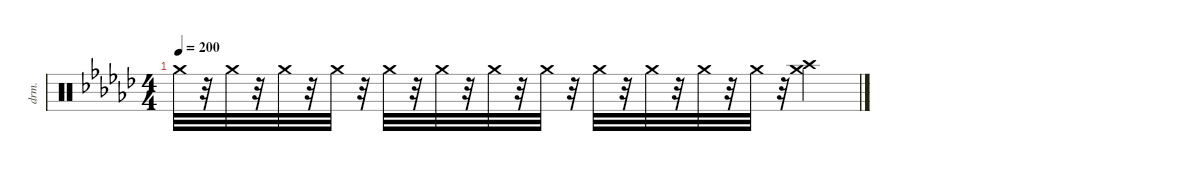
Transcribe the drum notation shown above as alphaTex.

\defaultSystemsLayout 4
\hideDynamics
\bracketExtendMode nobrackets
\otherSystemsTrackNameOrientation horizontal
\track ("Drums" "drm.") {instrument percussion}
\staff {score}
\articulation defaults
\ts (4 4)
\tempo 200
\clef neutral
\ks ebminor "Crash medium (hit)"{acc forcenatural}.32{dy p beam Down}
r.32{beam Down} "Crash medium (hit)"{acc forcenatural}.32{dy mp beam Down} r.32{beam Down} "Crash medium (hit)"{acc forcenatural}.32{beam Down} r.32{beam Down} "Crash medium (hit)"{acc forcenatural}.32{beam Down} r.32{beam Down} "Crash medium (hit)"{acc forcenatural}.32{beam Down} r.32{beam Down} "Crash medium (hit)"{acc forcenatural}.32{dy mf beam Down} r.32{beam Down} "Crash medium (hit)"{acc forcenatural}.32{beam Down} r.32{beam Down} "Crash medium (hit)"{acc forcenatural}.32{beam Down} r.32{beam Down} "Crash medium (hit)"{acc forcenatural}.32{beam Down} r.32{beam Down} "Crash medium (hit)"{acc forcenatural}.32{dy f beam Down} r.32{beam Down} "Crash medium (hit)"{acc forcenatural}.32{beam Down} r.32{beam Down} "Crash medium (hit)"{acc forcenatural}.32{beam Down} r.32{beam Down} ("Crash high (hit)"{acc forcenatural} "Crash medium (hit)"{acc forcenatural}).4{beam Down}
